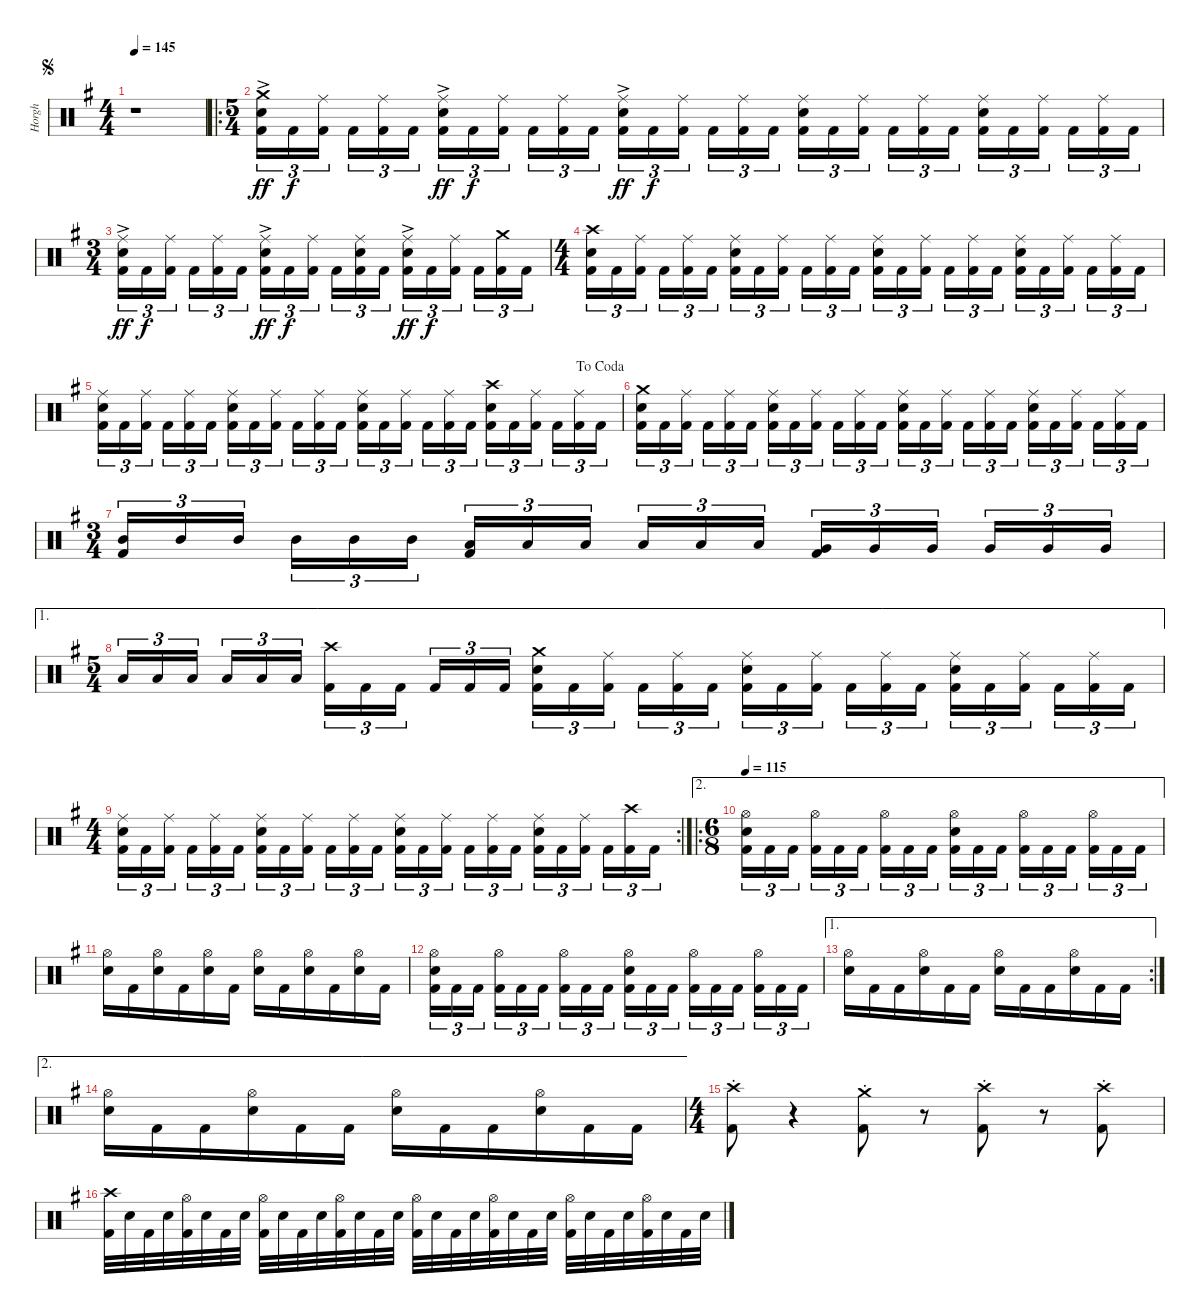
\track ("Horgh" "Horgh") {instrument percussion}
\staff {score}
\articulation defaults
\ts (4 4)
\jump segno
\tempo 145
\clef neutral
\ks g
r.1{dy f} |
\ro
\ts (5 4)
("Crash medium (hit)"{ac} "Electric Snare (hit)" "Kick (hit) 2").16{tu (3 2) dy ff} "Kick (hit) 2".16{tu (3 2) dy f} ("Ride (middle)" "Kick (hit) 2").16{tu (3 2) beam splitsecondary} "Kick (hit) 2".16{tu (3 2)} ("Ride (middle)" "Kick (hit) 2").16{tu (3 2)} "Kick (hit) 2".16{tu (3 2)} ("Ride (middle)"{ac} "Electric Snare (hit)" "Kick (hit) 2").16{tu (3 2) dy ff} "Kick (hit) 2".16{tu (3 2) dy f} ("Ride (middle)" "Kick (hit) 2").16{tu (3 2) beam splitsecondary} "Kick (hit) 2".16{tu (3 2)} ("Ride (middle)" "Kick (hit) 2").16{tu (3 2)} "Kick (hit) 2".16{tu (3 2)} ("Ride (middle)"{ac} "Electric Snare (hit)" "Kick (hit) 2").16{tu (3 2) dy ff} "Kick (hit) 2".16{tu (3 2) dy f} ("Ride (middle)" "Kick (hit) 2").16{tu (3 2) beam splitsecondary} "Kick (hit) 2".16{tu (3 2)} ("Ride (middle)" "Kick (hit) 2").16{tu (3 2)} "Kick (hit) 2".16{tu (3 2)} ("Ride (middle)" "Electric Snare (hit)" "Kick (hit) 2").16{tu (3 2)} "Kick (hit) 2".16{tu (3 2)} ("Ride (middle)" "Kick (hit) 2").16{tu (3 2) beam splitsecondary} "Kick (hit) 2".16{tu (3 2)} ("Ride (middle)" "Kick (hit) 2").16{tu (3 2)} "Kick (hit) 2".16{tu (3 2)} ("Ride (middle)" "Electric Snare (hit)" "Kick (hit) 2").16{tu (3 2)} "Kick (hit) 2".16{tu (3 2)} ("Ride (middle)" "Kick (hit) 2").16{tu (3 2) beam splitsecondary} "Kick (hit) 2".16{tu (3 2)} ("Ride (middle)" "Kick (hit) 2").16{tu (3 2)} "Kick (hit) 2".16{tu (3 2)} |
\ts (3 4)
("Ride (middle)"{ac} "Electric Snare (hit)" "Kick (hit) 2").16{tu (3 2) dy ff} "Kick (hit) 2".16{tu (3 2) dy f} ("Ride (middle)" "Kick (hit) 2").16{tu (3 2) beam splitsecondary} "Kick (hit) 2".16{tu (3 2)} ("Ride (middle)" "Kick (hit) 2").16{tu (3 2)} "Kick (hit) 2".16{tu (3 2)} ("Ride (middle)"{ac} "Electric Snare (hit)" "Kick (hit) 2").16{tu (3 2) dy ff} "Kick (hit) 2".16{tu (3 2) dy f} ("Ride (middle)" "Kick (hit) 2").16{tu (3 2) beam splitsecondary} "Kick (hit) 2".16{tu (3 2)} ("Ride (middle)" "Electric Snare (hit)" "Kick (hit) 2").16{tu (3 2)} "Kick (hit) 2".16{tu (3 2)} ("Ride (middle)"{ac} "Electric Snare (hit)" "Kick (hit) 2").16{tu (3 2) dy ff} "Kick (hit) 2".16{tu (3 2) dy f} ("Ride (middle)" "Kick (hit) 2").16{tu (3 2) beam splitsecondary} "Kick (hit) 2".16{tu (3 2)} ("Crash medium (hit)" "Kick (hit) 2").16{tu (3 2)} "Kick (hit) 2".16{tu (3 2)} |
\ts (4 4)
("Crash high (hit)" "Electric Snare (hit)" "Kick (hit) 2").16{tu (3 2)} "Kick (hit) 2".16{tu (3 2)} ("Ride (middle)" "Kick (hit) 2").16{tu (3 2) beam splitsecondary} "Kick (hit) 2".16{tu (3 2)} ("Ride (middle)" "Kick (hit) 2").16{tu (3 2)} "Kick (hit) 2".16{tu (3 2)} ("Ride (middle)" "Electric Snare (hit)" "Kick (hit) 2").16{tu (3 2)} "Kick (hit) 2".16{tu (3 2)} ("Ride (middle)" "Kick (hit) 2").16{tu (3 2) beam splitsecondary} "Kick (hit) 2".16{tu (3 2)} ("Ride (middle)" "Kick (hit) 2").16{tu (3 2)} "Kick (hit) 2".16{tu (3 2)} ("Ride (middle)" "Electric Snare (hit)" "Kick (hit) 2").16{tu (3 2)} "Kick (hit) 2".16{tu (3 2)} ("Ride (middle)" "Kick (hit) 2").16{tu (3 2) beam splitsecondary} "Kick (hit) 2".16{tu (3 2)} ("Ride (middle)" "Kick (hit) 2").16{tu (3 2)} "Kick (hit) 2".16{tu (3 2)} ("Ride (middle)" "Electric Snare (hit)" "Kick (hit) 2").16{tu (3 2)} "Kick (hit) 2".16{tu (3 2)} ("Ride (middle)" "Kick (hit) 2").16{tu (3 2) beam splitsecondary} "Kick (hit) 2".16{tu (3 2)} ("Ride (middle)" "Kick (hit) 2").16{tu (3 2)} "Kick (hit) 2".16{tu (3 2)} |
\jump dacoda
("Ride (middle)" "Electric Snare (hit)" "Kick (hit) 2").16{tu (3 2)} "Kick (hit) 2".16{tu (3 2)} ("Ride (middle)" "Kick (hit) 2").16{tu (3 2) beam splitsecondary} "Kick (hit) 2".16{tu (3 2)} ("Ride (middle)" "Kick (hit) 2").16{tu (3 2)} "Kick (hit) 2".16{tu (3 2)} ("Ride (middle)" "Electric Snare (hit)" "Kick (hit) 2").16{tu (3 2)} "Kick (hit) 2".16{tu (3 2)} ("Ride (middle)" "Kick (hit) 2").16{tu (3 2) beam splitsecondary} "Kick (hit) 2".16{tu (3 2)} ("Ride (middle)" "Kick (hit) 2").16{tu (3 2)} "Kick (hit) 2".16{tu (3 2)} ("Ride (middle)" "Electric Snare (hit)" "Kick (hit) 2").16{tu (3 2)} "Kick (hit) 2".16{tu (3 2)} ("Ride (middle)" "Kick (hit) 2").16{tu (3 2) beam splitsecondary} "Kick (hit) 2".16{tu (3 2)} ("Ride (middle)" "Kick (hit) 2").16{tu (3 2)} "Kick (hit) 2".16{tu (3 2)} ("Crash high (hit)" "Electric Snare (hit)" "Kick (hit) 2").16{tu (3 2)} "Kick (hit) 2".16{tu (3 2)} ("Ride (middle)" "Kick (hit) 2").16{tu (3 2) beam splitsecondary} "Kick (hit) 2".16{tu (3 2)} ("Ride (middle)" "Kick (hit) 2").16{tu (3 2)} "Kick (hit) 2".16{tu (3 2)} |
("Crash medium (hit)" "Electric Snare (hit)" "Kick (hit) 2").16{tu (3 2)} "Kick (hit) 2".16{tu (3 2)} ("Ride (middle)" "Kick (hit) 2").16{tu (3 2) beam splitsecondary} "Kick (hit) 2".16{tu (3 2)} ("Ride (middle)" "Kick (hit) 2").16{tu (3 2)} "Kick (hit) 2".16{tu (3 2)} ("Ride (middle)" "Electric Snare (hit)" "Kick (hit) 2").16{tu (3 2)} "Kick (hit) 2".16{tu (3 2)} ("Ride (middle)" "Kick (hit) 2").16{tu (3 2) beam splitsecondary} "Kick (hit) 2".16{tu (3 2)} ("Ride (middle)" "Kick (hit) 2").16{tu (3 2)} "Kick (hit) 2".16{tu (3 2)} ("Ride (middle)" "Electric Snare (hit)" "Kick (hit) 2").16{tu (3 2)} "Kick (hit) 2".16{tu (3 2)} ("Ride (middle)" "Kick (hit) 2").16{tu (3 2) beam splitsecondary} "Kick (hit) 2".16{tu (3 2)} ("Ride (middle)" "Kick (hit) 2").16{tu (3 2)} "Kick (hit) 2".16{tu (3 2)} ("Ride (middle)" "Electric Snare (hit)" "Kick (hit) 2").16{tu (3 2)} "Kick (hit) 2".16{tu (3 2)} ("Ride (middle)" "Kick (hit) 2").16{tu (3 2) beam splitsecondary} "Kick (hit) 2".16{tu (3 2)} ("Ride (middle)" "Kick (hit) 2").16{tu (3 2)} "Kick (hit) 2".16{tu (3 2)} |
\ts (3 4)
("Mid Tom (hit)" "Kick (hit) 2").16{tu (3 2)} "Mid Tom (hit)".16{tu (3 2)} "Mid Tom (hit)".16{tu (3 2) beam splitsecondary} "Mid Tom (hit)".16{tu (3 2)} "Mid Tom (hit)".16{tu (3 2)} "Mid Tom (hit)".16{tu (3 2)} ("Low Tom (hit)" "Kick (hit) 2").16{tu (3 2)} "Low Tom (hit)".16{tu (3 2)} "Low Tom (hit)".16{tu (3 2) beam splitsecondary} "Low Tom (hit)".16{tu (3 2)} "Low Tom (hit)".16{tu (3 2)} "Low Tom (hit)".16{tu (3 2)} ("Very Low Tom (hit)" "Kick (hit) 2").16{tu (3 2)} "Very Low Tom (hit)".16{tu (3 2)} "Very Low Tom (hit)".16{tu (3 2) beam splitsecondary} "Very Low Tom (hit)".16{tu (3 2)} "Very Low Tom (hit)".16{tu (3 2)} "Very Low Tom (hit)".16{tu (3 2)} |
\ae 1
\ts (5 4)
"Low Floor Tom (hit)".16{tu (3 2)} "Low Floor Tom (hit)".16{tu (3 2)} "Low Floor Tom (hit)".16{tu (3 2) beam splitsecondary} "Low Floor Tom (hit)".16{tu (3 2)} "Low Floor Tom (hit)".16{tu (3 2)} "Low Floor Tom (hit)".16{tu (3 2)} ("Crash high (hit)" "Kick (hit) 2").16{tu (3 2)} "Kick (hit) 2".16{tu (3 2)} "Kick (hit) 2".16{tu (3 2) beam splitsecondary} "Kick (hit) 2".16{tu (3 2)} "Kick (hit) 2".16{tu (3 2)} "Kick (hit) 2".16{tu (3 2)} ("Crash medium (hit)" "Electric Snare (hit)" "Kick (hit) 2").16{tu (3 2)} "Kick (hit) 2".16{tu (3 2)} ("Ride (middle)" "Kick (hit) 2").16{tu (3 2) beam splitsecondary} "Kick (hit) 2".16{tu (3 2)} ("Ride (middle)" "Kick (hit) 2").16{tu (3 2)} "Kick (hit) 2".16{tu (3 2)} ("Ride (middle)" "Electric Snare (hit)" "Kick (hit) 2").16{tu (3 2)} "Kick (hit) 2".16{tu (3 2)} ("Ride (middle)" "Kick (hit) 2").16{tu (3 2) beam splitsecondary} "Kick (hit) 2".16{tu (3 2)} ("Ride (middle)" "Kick (hit) 2").16{tu (3 2)} "Kick (hit) 2".16{tu (3 2)} ("Ride (middle)" "Electric Snare (hit)" "Kick (hit) 2").16{tu (3 2)} "Kick (hit) 2".16{tu (3 2)} ("Ride (middle)" "Kick (hit) 2").16{tu (3 2) beam splitsecondary} "Kick (hit) 2".16{tu (3 2)} ("Ride (middle)" "Kick (hit) 2").16{tu (3 2)} "Kick (hit) 2".16{tu (3 2)} |
\rc 2
\ts (4 4)
("Ride (middle)" "Electric Snare (hit)" "Kick (hit) 2").16{tu (3 2)} "Kick (hit) 2".16{tu (3 2)} ("Ride (middle)" "Kick (hit) 2").16{tu (3 2) beam splitsecondary} "Kick (hit) 2".16{tu (3 2)} ("Ride (middle)" "Kick (hit) 2").16{tu (3 2)} "Kick (hit) 2".16{tu (3 2)} ("Ride (middle)" "Electric Snare (hit)" "Kick (hit) 2").16{tu (3 2)} "Kick (hit) 2".16{tu (3 2)} ("Ride (middle)" "Kick (hit) 2").16{tu (3 2) beam splitsecondary} "Kick (hit) 2".16{tu (3 2)} ("Ride (middle)" "Kick (hit) 2").16{tu (3 2)} "Kick (hit) 2".16{tu (3 2)} ("Ride (middle)" "Electric Snare (hit)" "Kick (hit) 2").16{tu (3 2)} "Kick (hit) 2".16{tu (3 2)} ("Ride (middle)" "Kick (hit) 2").16{tu (3 2) beam splitsecondary} "Kick (hit) 2".16{tu (3 2)} ("Ride (middle)" "Kick (hit) 2").16{tu (3 2)} "Kick (hit) 2".16{tu (3 2)} ("Ride (middle)" "Electric Snare (hit)" "Kick (hit) 2").16{tu (3 2)} "Kick (hit) 2".16{tu (3 2)} ("Ride (middle)" "Kick (hit) 2").16{tu (3 2) beam splitsecondary} "Kick (hit) 2".16{tu (3 2)} ("Crash high (hit)" "Kick (hit) 2").16{tu (3 2)} "Kick (hit) 2".16{tu (3 2)} |
\ae 2
\ro
\ts (6 8)
\tempo 115
("Hi-Hat (open)" "Electric Snare (hit)" "Kick (hit) 2").16{tu (3 2)} "Kick (hit) 2".16{tu (3 2)} "Kick (hit) 2".16{tu (3 2) beam splitsecondary} ("Hi-Hat (open)" "Kick (hit) 2").16{tu (3 2)} "Kick (hit) 2".16{tu (3 2)} "Kick (hit) 2".16{tu (3 2) beam splitsecondary} ("Hi-Hat (open)" "Kick (hit) 2").16{tu (3 2)} "Kick (hit) 2".16{tu (3 2)} "Kick (hit) 2".16{tu (3 2)} ("Hi-Hat (open)" "Electric Snare (hit)" "Kick (hit) 2").16{tu (3 2)} "Kick (hit) 2".16{tu (3 2)} "Kick (hit) 2".16{tu (3 2) beam splitsecondary} ("Hi-Hat (open)" "Kick (hit) 2").16{tu (3 2)} "Kick (hit) 2".16{tu (3 2)} "Kick (hit) 2".16{tu (3 2) beam splitsecondary} ("Hi-Hat (open)" "Kick (hit) 2").16{tu (3 2)} "Kick (hit) 2".16{tu (3 2)} "Kick (hit) 2".16{tu (3 2)} |
("Hi-Hat (open)" "Electric Snare (hit)").16 "Kick (hit) 2".16 ("Hi-Hat (open)" "Electric Snare (hit)").16 "Kick (hit) 2".16 ("Hi-Hat (open)" "Electric Snare (hit)").16 "Kick (hit) 2".16 ("Hi-Hat (open)" "Electric Snare (hit)").16 "Kick (hit) 2".16 ("Hi-Hat (open)" "Electric Snare (hit)").16 "Kick (hit) 2".16 ("Hi-Hat (open)" "Electric Snare (hit)").16 "Kick (hit) 2".16 |
("Hi-Hat (open)" "Electric Snare (hit)" "Kick (hit) 2").16{tu (3 2)} "Kick (hit) 2".16{tu (3 2)} "Kick (hit) 2".16{tu (3 2) beam splitsecondary} ("Hi-Hat (open)" "Kick (hit) 2").16{tu (3 2)} "Kick (hit) 2".16{tu (3 2)} "Kick (hit) 2".16{tu (3 2) beam splitsecondary} ("Hi-Hat (open)" "Kick (hit) 2").16{tu (3 2)} "Kick (hit) 2".16{tu (3 2)} "Kick (hit) 2".16{tu (3 2)} ("Hi-Hat (open)" "Electric Snare (hit)" "Kick (hit) 2").16{tu (3 2)} "Kick (hit) 2".16{tu (3 2)} "Kick (hit) 2".16{tu (3 2) beam splitsecondary} ("Hi-Hat (open)" "Kick (hit) 2").16{tu (3 2)} "Kick (hit) 2".16{tu (3 2)} "Kick (hit) 2".16{tu (3 2) beam splitsecondary} ("Hi-Hat (open)" "Kick (hit) 2").16{tu (3 2)} "Kick (hit) 2".16{tu (3 2)} "Kick (hit) 2".16{tu (3 2)} |
\ae 1
\rc 2
("Hi-Hat (open)" "Electric Snare (hit)").16 "Kick (hit) 2".16 "Kick (hit) 2".16 ("Hi-Hat (open)" "Electric Snare (hit)").16 "Kick (hit) 2".16 "Kick (hit) 2".16 ("Hi-Hat (open)" "Electric Snare (hit)").16 "Kick (hit) 2".16 "Kick (hit) 2".16 ("Hi-Hat (open)" "Electric Snare (hit)").16 "Kick (hit) 2".16 "Kick (hit) 2".16 |
\ae 2
("Hi-Hat (open)" "Electric Snare (hit)").16 "Kick (hit) 2".16 "Kick (hit) 2".16 ("Hi-Hat (open)" "Electric Snare (hit)").16 "Kick (hit) 2".16 "Kick (hit) 2".16 ("Hi-Hat (open)" "Electric Snare (hit)").16 "Kick (hit) 2".16 "Kick (hit) 2".16 ("Hi-Hat (open)" "Electric Snare (hit)").16 "Kick (hit) 2".16 "Kick (hit) 2".16 |
\ts (4 4)
("Crash high (hit)"{st} "Kick (hit) 2"{st}).8 r.4 ("Crash medium (hit)"{st} "Kick (hit) 2"{st}).8 r.8 ("Crash high (hit)"{st} "Kick (hit) 2"{st}).8 r.8 ("Crash high (hit)"{st} "Kick (hit) 2"{st}).8 |
("Crash high (hit)" "Kick (hit) 2").32 "Electric Snare (hit)".32 "Kick (hit) 2".32 "Electric Snare (hit)".32 ("Hi-Hat (open)" "Kick (hit) 2").32 "Electric Snare (hit)".32 "Kick (hit) 2".32 "Electric Snare (hit)".32 ("Hi-Hat (open)" "Kick (hit) 2").32 "Electric Snare (hit)".32 "Kick (hit) 2".32 "Electric Snare (hit)".32 ("Hi-Hat (open)" "Kick (hit) 2").32 "Electric Snare (hit)".32 "Kick (hit) 2".32 "Electric Snare (hit)".32 ("Hi-Hat (open)" "Kick (hit) 2").32 "Electric Snare (hit)".32 "Kick (hit) 2".32 "Electric Snare (hit)".32 ("Hi-Hat (open)" "Kick (hit) 2").32 "Electric Snare (hit)".32 "Kick (hit) 2".32 "Electric Snare (hit)".32 ("Hi-Hat (open)" "Kick (hit) 2").32 "Electric Snare (hit)".32 "Kick (hit) 2".32 "Electric Snare (hit)".32 ("Hi-Hat (open)" "Kick (hit) 2").32 "Electric Snare (hit)".32 "Kick (hit) 2".32 "Electric Snare (hit)".32
